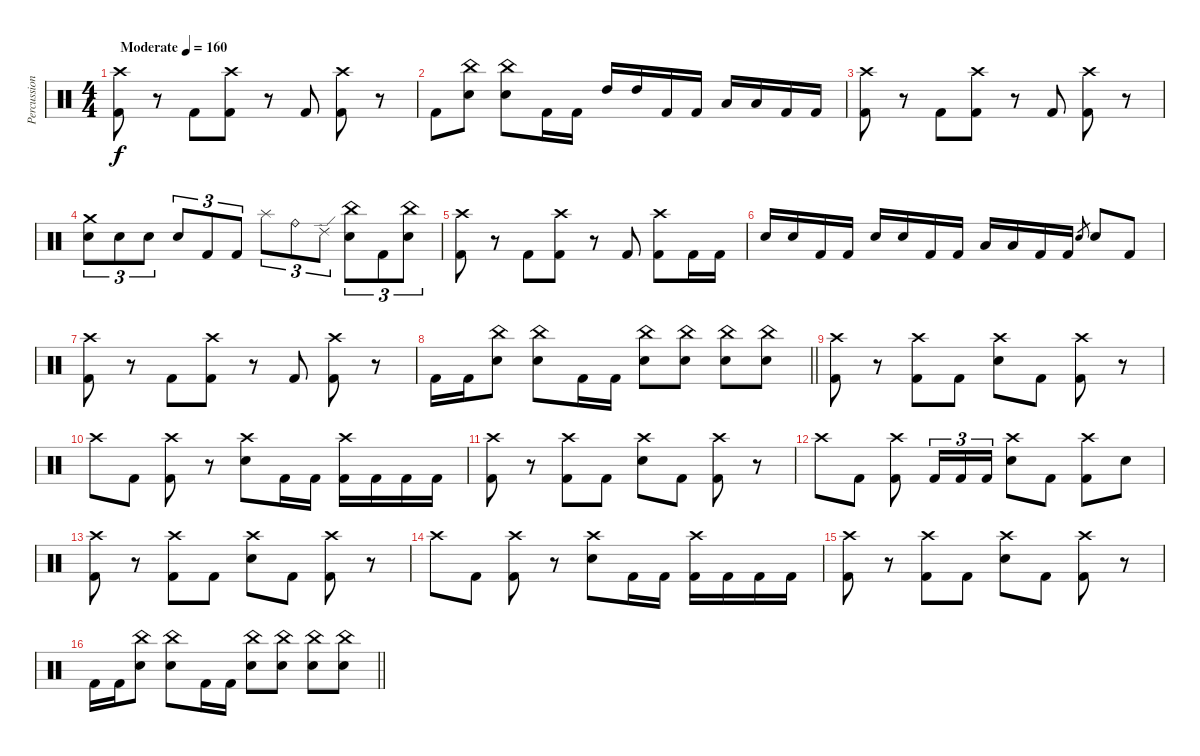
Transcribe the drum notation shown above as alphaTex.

\track ("Percussion" "Percussion") {instrument percussion}
\staff {score}
\articulation defaults
\ts (4 4)
\tempo (160 "Moderate")
\clef neutral
\ks c
("Crash high (hit)" "Kick (hit) 2").8{dy f} r.8 "Kick (hit) 2".8 ("Crash high (hit)" "Kick (hit) 2").8 r.8 "Kick (hit) 2".8 ("Crash high (hit)" "Kick (hit) 2").8 r.8 |
"Kick (hit) 2".8 ("China (hit)" "Snare (hit) 2").8 ("China (hit)" "Snare (hit) 2").8 "Kick (hit) 2".16 "Kick (hit) 2".16 "High Tom (hit)".16 "High Tom (hit)".16 "Kick (hit) 2".16 "Kick (hit) 2".16 "Low Tom (hit)".16 "Low Tom (hit)".16 "Kick (hit) 2".16 "Kick (hit) 2".16 |
("Crash high (hit)" "Kick (hit) 2").8 r.8 "Kick (hit) 2".8 ("Crash high (hit)" "Kick (hit) 2").8 r.8 "Kick (hit) 2".8 ("Crash high (hit)" "Kick (hit) 2").8 r.8 |
("Crash medium (hit)" "Snare (hit) 2").8{tu (3 2)} "Snare (hit) 2".8{tu (3 2)} "Snare (hit) 2".8{tu (3 2)} "Snare (hit) 2".8{tu (3 2)} "Kick (hit) 2".8{tu (3 2)} "Kick (hit) 2".8{tu (3 2)} "Splash (hit)".8{tu (3 2)} "Ride (bell)".8{tu (3 2)} "Ride (edge) 2".8{tu (3 2)} ("China (hit)" "Snare (hit) 2").8{tu (3 2)} "Kick (hit) 2".8{tu (3 2)} ("China (hit)" "Snare (hit) 2").8{tu (3 2)} |
("Crash high (hit)" "Kick (hit) 2").8 r.8 "Kick (hit) 2".8 ("Crash high (hit)" "Kick (hit) 2").8 r.8 "Kick (hit) 2".8 ("Crash high (hit)" "Kick (hit) 2").8 "Kick (hit) 2".16 "Kick (hit) 2".16 |
"Snare (hit) 2".16 "Snare (hit) 2".16 "Kick (hit) 2".16 "Kick (hit) 2".16 "Snare (hit) 2".16 "Snare (hit) 2".16 "Kick (hit) 2".16 "Kick (hit) 2".16 "Low Tom (hit)".16 "Low Tom (hit)".16 "Kick (hit) 2".16 "Kick (hit) 2".16 "Snare (hit) 2".8{gr} "Snare (hit) 2".8 "Kick (hit) 2".8 |
("Crash high (hit)" "Kick (hit) 2").8 r.8 "Kick (hit) 2".8 ("Crash high (hit)" "Kick (hit) 2").8 r.8 "Kick (hit) 2".8 ("Crash high (hit)" "Kick (hit) 2").8 r.8 |
\barLineRight lightlight "Kick (hit) 2".16 "Kick (hit) 2".16
("China (hit)" "Snare (hit) 2").8 ("China (hit)" "Snare (hit) 2").8 "Kick (hit) 2".16 "Kick (hit) 2".16 ("China (hit)" "Snare (hit) 2").8 ("China (hit)" "Snare (hit) 2").8 ("China (hit)" "Snare (hit) 2").8 ("China (hit)" "Snare (hit) 2").8 |
\section ("" "")
("Crash high (hit)" "Kick (hit) 2").8 r.8 ("Crash high (hit)" "Kick (hit) 2").8 "Kick (hit) 2".8 ("Crash high (hit)" "Snare (hit) 2").8 "Kick (hit) 2".8 ("Crash high (hit)" "Kick (hit) 2").8 r.8 |
"Crash high (hit)".8 "Kick (hit) 2".8 ("Crash high (hit)" "Kick (hit) 2").8 r.8 ("Crash high (hit)" "Snare (hit) 2").8 "Kick (hit) 2".16 "Kick (hit) 2".16 ("Crash high (hit)" "Kick (hit) 2").16 "Kick (hit) 2".16 "Kick (hit) 2".16 "Kick (hit) 2".16 |
("Crash high (hit)" "Kick (hit) 2").8 r.8 ("Crash high (hit)" "Kick (hit) 2").8 "Kick (hit) 2".8 ("Crash high (hit)" "Snare (hit) 2").8 "Kick (hit) 2".8 ("Crash high (hit)" "Kick (hit) 2").8 r.8 |
"Crash high (hit)".8 "Kick (hit) 2".8 ("Crash high (hit)" "Kick (hit) 2").8 "Kick (hit) 2".16{tu (3 2)} "Kick (hit) 2".16{tu (3 2)} "Kick (hit) 2".16{tu (3 2)} ("Crash high (hit)" "Snare (hit) 2").8 "Kick (hit) 2".8 ("Crash high (hit)" "Kick (hit) 2").8 "Snare (hit) 2".8 |
("Crash high (hit)" "Kick (hit) 2").8 r.8 ("Crash high (hit)" "Kick (hit) 2").8 "Kick (hit) 2".8 ("Crash high (hit)" "Snare (hit) 2").8 "Kick (hit) 2".8 ("Crash high (hit)" "Kick (hit) 2").8 r.8 |
"Crash high (hit)".8 "Kick (hit) 2".8 ("Crash high (hit)" "Kick (hit) 2").8 r.8 ("Crash high (hit)" "Snare (hit) 2").8 "Kick (hit) 2".16 "Kick (hit) 2".16 ("Crash high (hit)" "Kick (hit) 2").16 "Kick (hit) 2".16 "Kick (hit) 2".16 "Kick (hit) 2".16 |
("Crash high (hit)" "Kick (hit) 2").8 r.8 ("Crash high (hit)" "Kick (hit) 2").8 "Kick (hit) 2".8 ("Crash high (hit)" "Snare (hit) 2").8 "Kick (hit) 2".8 ("Crash high (hit)" "Kick (hit) 2").8 r.8 |
\barLineRight lightlight "Kick (hit) 2".16 "Kick (hit) 2".16
("China (hit)" "Snare (hit) 2").8 ("China (hit)" "Snare (hit) 2").8 "Kick (hit) 2".16 "Kick (hit) 2".16 ("China (hit)" "Snare (hit) 2").8 ("China (hit)" "Snare (hit) 2").8 ("China (hit)" "Snare (hit) 2").8 ("China (hit)" "Snare (hit) 2").8
